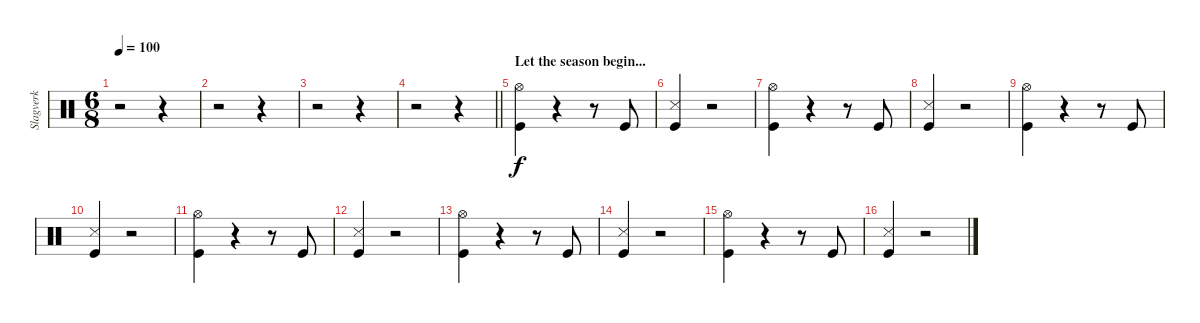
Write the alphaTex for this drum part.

\track ("Slagverk" "Slagverk") {instrument percussion}
\staff {score}
\articulation defaults
\ts (6 8)
\tempo 100
\clef neutral
\ks c
r.2{dy f} r.4 |
r.2 r.4 |
r.2 r.4 |
\barLineRight lightlight
r.2 r.4 |
\section ("" "Let the season begin...")
("Hi-Hat (open)" "Kick (hit)").4 r.4 r.8 "Kick (hit)".8 |
("Snare (side stick) 3" "Kick (hit)").4 r.2 |
("Hi-Hat (open)" "Kick (hit)").4 r.4 r.8 "Kick (hit)".8 |
("Snare (side stick) 3" "Kick (hit)").4 r.2 |
("Hi-Hat (open)" "Kick (hit)").4 r.4 r.8 "Kick (hit)".8 |
("Snare (side stick) 3" "Kick (hit)").4 r.2 |
("Hi-Hat (open)" "Kick (hit)").4 r.4 r.8 "Kick (hit)".8 |
("Snare (side stick) 3" "Kick (hit)").4 r.2 |
("Hi-Hat (open)" "Kick (hit)").4 r.4 r.8 "Kick (hit)".8 |
("Snare (side stick) 3" "Kick (hit)").4 r.2 |
("Hi-Hat (open)" "Kick (hit)").4 r.4 r.8 "Kick (hit)".8 |
("Snare (side stick) 3" "Kick (hit)").4 r.2
